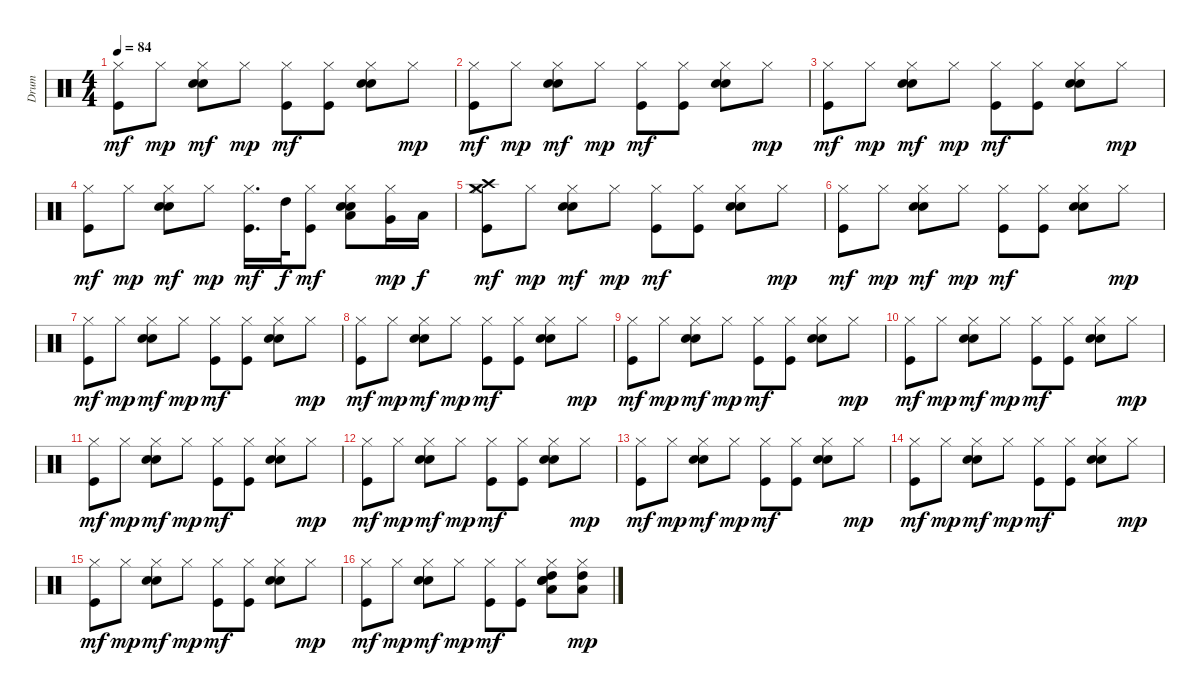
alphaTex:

\track ("Drum" "Drum") {instrument percussion}
\staff {score}
\articulation defaults
\ts (4 4)
\tempo 84
\clef neutral
\ks c
("Hi-Hat (closed)" "Kick (hit)").8{dy mf} "Hi-Hat (closed)".8{dy mp} ("Hi-Hat (closed)" "Electric Snare (hit)" "Hand Clap (hit)").8{dy mf} "Hi-Hat (closed)".8{dy mp} ("Hi-Hat (closed)" "Kick (hit)").8{dy mf} ("Hi-Hat (closed)" "Kick (hit)").8 ("Hi-Hat (closed)" "Electric Snare (hit)" "Hand Clap (hit)").8 "Hi-Hat (closed)".8{dy mp} |
("Hi-Hat (closed)" "Kick (hit)").8{dy mf} "Hi-Hat (closed)".8{dy mp} ("Hi-Hat (closed)" "Electric Snare (hit)" "Hand Clap (hit)").8{dy mf} "Hi-Hat (closed)".8{dy mp} ("Hi-Hat (closed)" "Kick (hit)").8{dy mf} ("Hi-Hat (closed)" "Kick (hit)").8 ("Electric Snare (hit)" "Hi-Hat (closed)" "Hand Clap (hit)").8 "Hi-Hat (closed)".8{dy mp} |
("Hi-Hat (closed)" "Kick (hit)").8{dy mf} "Hi-Hat (closed)".8{dy mp} ("Hi-Hat (closed)" "Electric Snare (hit)" "Hand Clap (hit)").8{dy mf} "Hi-Hat (closed)".8{dy mp} ("Hi-Hat (closed)" "Kick (hit)").8{dy mf} ("Hi-Hat (closed)" "Kick (hit)").8 ("Hi-Hat (closed)" "Electric Snare (hit)" "Hand Clap (hit)").8 "Hi-Hat (closed)".8{dy mp} |
("Hi-Hat (closed)" "Kick (hit)").8{dy mf} "Hi-Hat (closed)".8{dy mp} ("Hi-Hat (closed)" "Electric Snare (hit)" "Hand Clap (hit)").8{dy mf} "Hi-Hat (closed)".8{dy mp} ("Hi-Hat (closed)" "Kick (hit)").16{d dy mf} "High Tom (hit)".32{dy f} ("Hi-Hat (closed)" "Kick (hit)").8{dy mf} ("Low Tom (hit)" "Hi-Hat (closed)" "Electric Snare (hit)" "Hand Clap (hit)").8 ("Very Low Tom (hit)" "Hi-Hat (closed)").16{dy mp} "Low Floor Tom (hit)".16{dy f} |
("Crash high (hit)" "Crash medium (hit)" "Hi-Hat (closed)" "Kick (hit)").8{dy mf} "Hi-Hat (closed)".8{dy mp} ("Hi-Hat (closed)" "Electric Snare (hit)" "Hand Clap (hit)").8{dy mf} "Hi-Hat (closed)".8{dy mp} ("Hi-Hat (closed)" "Kick (hit)").8{dy mf} ("Hi-Hat (closed)" "Kick (hit)").8 ("Hi-Hat (closed)" "Electric Snare (hit)" "Hand Clap (hit)").8 "Hi-Hat (closed)".8{dy mp} |
("Hi-Hat (closed)" "Kick (hit)").8{dy mf} "Hi-Hat (closed)".8{dy mp} ("Hi-Hat (closed)" "Electric Snare (hit)" "Hand Clap (hit)").8{dy mf} "Hi-Hat (closed)".8{dy mp} ("Hi-Hat (closed)" "Kick (hit)").8{dy mf} ("Hi-Hat (closed)" "Kick (hit)").8 ("Hi-Hat (closed)" "Electric Snare (hit)" "Hand Clap (hit)").8 "Hi-Hat (closed)".8{dy mp} |
("Hi-Hat (closed)" "Kick (hit)").8{dy mf} "Hi-Hat (closed)".8{dy mp} ("Hi-Hat (closed)" "Electric Snare (hit)" "Hand Clap (hit)").8{dy mf} "Hi-Hat (closed)".8{dy mp} ("Hi-Hat (closed)" "Kick (hit)").8{dy mf} ("Hi-Hat (closed)" "Kick (hit)").8 ("Hi-Hat (closed)" "Electric Snare (hit)" "Hand Clap (hit)").8 "Hi-Hat (closed)".8{dy mp} |
("Hi-Hat (closed)" "Kick (hit)").8{dy mf} "Hi-Hat (closed)".8{dy mp} ("Hi-Hat (closed)" "Electric Snare (hit)" "Hand Clap (hit)").8{dy mf} "Hi-Hat (closed)".8{dy mp} ("Hi-Hat (closed)" "Kick (hit)").8{dy mf} ("Hi-Hat (closed)" "Kick (hit)").8 ("Hi-Hat (closed)" "Electric Snare (hit)" "Hand Clap (hit)").8 "Hi-Hat (closed)".8{dy mp} |
("Hi-Hat (closed)" "Kick (hit)").8{dy mf} "Hi-Hat (closed)".8{dy mp} ("Hi-Hat (closed)" "Electric Snare (hit)" "Hand Clap (hit)").8{dy mf} "Hi-Hat (closed)".8{dy mp} ("Hi-Hat (closed)" "Kick (hit)").8{dy mf} ("Hi-Hat (closed)" "Kick (hit)").8 ("Hi-Hat (closed)" "Electric Snare (hit)" "Hand Clap (hit)").8 "Hi-Hat (closed)".8{dy mp} |
("Hi-Hat (closed)" "Kick (hit)").8{dy mf} "Hi-Hat (closed)".8{dy mp} ("Hi-Hat (closed)" "Electric Snare (hit)" "Hand Clap (hit)").8{dy mf} "Hi-Hat (closed)".8{dy mp} ("Hi-Hat (closed)" "Kick (hit)").8{dy mf} ("Hi-Hat (closed)" "Kick (hit)").8 ("Hi-Hat (closed)" "Electric Snare (hit)" "Hand Clap (hit)").8 "Hi-Hat (closed)".8{dy mp} |
("Hi-Hat (closed)" "Kick (hit)").8{dy mf} "Hi-Hat (closed)".8{dy mp} ("Hi-Hat (closed)" "Electric Snare (hit)" "Hand Clap (hit)").8{dy mf} "Hi-Hat (closed)".8{dy mp} ("Hi-Hat (closed)" "Kick (hit)").8{dy mf} ("Hi-Hat (closed)" "Kick (hit)").8 ("Hi-Hat (closed)" "Electric Snare (hit)" "Hand Clap (hit)").8 "Hi-Hat (closed)".8{dy mp} |
("Hi-Hat (closed)" "Kick (hit)").8{dy mf} "Hi-Hat (closed)".8{dy mp} ("Hi-Hat (closed)" "Electric Snare (hit)" "Hand Clap (hit)").8{dy mf} "Hi-Hat (closed)".8{dy mp} ("Hi-Hat (closed)" "Kick (hit)").8{dy mf} ("Hi-Hat (closed)" "Kick (hit)").8 ("Hi-Hat (closed)" "Electric Snare (hit)" "Hand Clap (hit)").8 "Hi-Hat (closed)".8{dy mp} |
("Hi-Hat (closed)" "Kick (hit)").8{dy mf} "Hi-Hat (closed)".8{dy mp} ("Hi-Hat (closed)" "Electric Snare (hit)" "Hand Clap (hit)").8{dy mf} "Hi-Hat (closed)".8{dy mp} ("Hi-Hat (closed)" "Kick (hit)").8{dy mf} ("Hi-Hat (closed)" "Kick (hit)").8 ("Hi-Hat (closed)" "Electric Snare (hit)" "Hand Clap (hit)").8 "Hi-Hat (closed)".8{dy mp} |
("Hi-Hat (closed)" "Kick (hit)").8{dy mf} "Hi-Hat (closed)".8{dy mp} ("Hi-Hat (closed)" "Electric Snare (hit)" "Hand Clap (hit)").8{dy mf} "Hi-Hat (closed)".8{dy mp} ("Hi-Hat (closed)" "Kick (hit)").8{dy mf} ("Hi-Hat (closed)" "Kick (hit)").8 ("Hi-Hat (closed)" "Electric Snare (hit)" "Hand Clap (hit)").8 "Hi-Hat (closed)".8{dy mp} |
("Hi-Hat (closed)" "Kick (hit)").8{dy mf} "Hi-Hat (closed)".8{dy mp} ("Hi-Hat (closed)" "Electric Snare (hit)" "Hand Clap (hit)").8{dy mf} "Hi-Hat (closed)".8{dy mp} ("Hi-Hat (closed)" "Kick (hit)").8{dy mf} ("Hi-Hat (closed)" "Kick (hit)").8 ("Hi-Hat (closed)" "Electric Snare (hit)" "Hand Clap (hit)").8 "Hi-Hat (closed)".8{dy mp} |
("Hi-Hat (closed)" "Kick (hit)").8{dy mf} "Hi-Hat (closed)".8{dy mp} ("Hi-Hat (closed)" "Electric Snare (hit)" "Hand Clap (hit)").8{dy mf} "Hi-Hat (closed)".8{dy mp} ("Hi-Hat (closed)" "Kick (hit)").8{dy mf} ("Hi-Hat (closed)" "Kick (hit)").8 ("High Tom (hit)" "Low Tom (hit)" "Hi-Hat (closed)" "Electric Snare (hit)" "Hand Clap (hit)").8 ("High Tom (hit)" "Low Tom (hit)" "Hi-Hat (closed)").8{dy mp}
